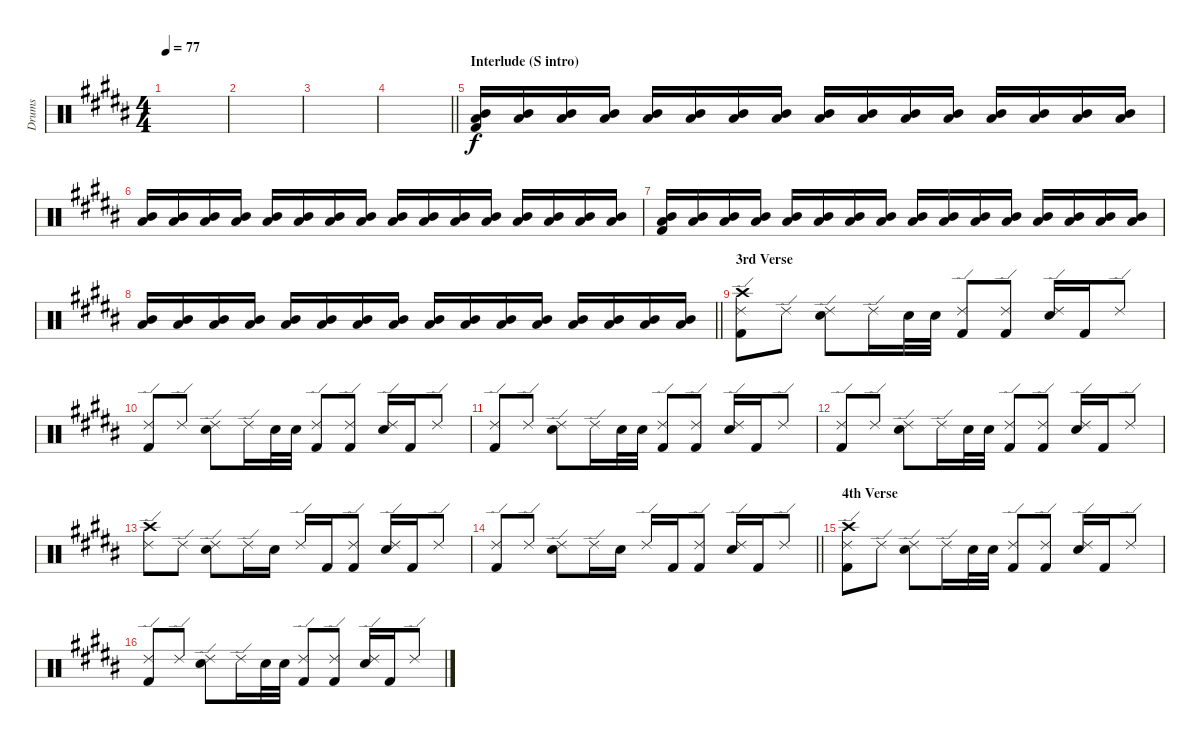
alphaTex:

\track ("Drums" "Drums") {instrument percussion}
\staff {score}
\articulation defaults
\ts (4 4)
\tempo 77
\clef neutral
\ks g#minor
|
|
|
\barLineRight lightlight
|
\section ("" "Interlude (Ѕ intro)")
("Kick (hit) 2" "Mid Tom (hit)" "Low Tom (hit)").16 ("Mid Tom (hit)" "Low Tom (hit)").16 ("Mid Tom (hit)" "Low Tom (hit)").16 ("Mid Tom (hit)" "Low Tom (hit)").16 ("Mid Tom (hit)" "Low Tom (hit)").16 ("Mid Tom (hit)" "Low Tom (hit)").16 ("Mid Tom (hit)" "Low Tom (hit)").16 ("Mid Tom (hit)" "Low Tom (hit)").16 ("Mid Tom (hit)" "Low Tom (hit)").16 ("Mid Tom (hit)" "Low Tom (hit)").16 ("Mid Tom (hit)" "Low Tom (hit)").16 ("Mid Tom (hit)" "Low Tom (hit)").16 ("Mid Tom (hit)" "Low Tom (hit)").16 ("Mid Tom (hit)" "Low Tom (hit)").16 ("Mid Tom (hit)" "Low Tom (hit)").16 ("Mid Tom (hit)" "Low Tom (hit)").16 |
("Mid Tom (hit)" "Low Tom (hit)").16 ("Mid Tom (hit)" "Low Tom (hit)").16 ("Mid Tom (hit)" "Low Tom (hit)").16 ("Mid Tom (hit)" "Low Tom (hit)").16 ("Mid Tom (hit)" "Low Tom (hit)").16 ("Mid Tom (hit)" "Low Tom (hit)").16 ("Mid Tom (hit)" "Low Tom (hit)").16 ("Mid Tom (hit)" "Low Tom (hit)").16 ("Mid Tom (hit)" "Low Tom (hit)").16 ("Mid Tom (hit)" "Low Tom (hit)").16 ("Mid Tom (hit)" "Low Tom (hit)").16 ("Mid Tom (hit)" "Low Tom (hit)").16 ("Mid Tom (hit)" "Low Tom (hit)").16 ("Mid Tom (hit)" "Low Tom (hit)").16 ("Mid Tom (hit)" "Low Tom (hit)").16 ("Mid Tom (hit)" "Low Tom (hit)").16 |
("Kick (hit) 2" "Mid Tom (hit)" "Low Tom (hit)").16 ("Mid Tom (hit)" "Low Tom (hit)").16 ("Mid Tom (hit)" "Low Tom (hit)").16 ("Mid Tom (hit)" "Low Tom (hit)").16 ("Mid Tom (hit)" "Low Tom (hit)").16 ("Mid Tom (hit)" "Low Tom (hit)").16 ("Mid Tom (hit)" "Low Tom (hit)").16 ("Mid Tom (hit)" "Low Tom (hit)").16 ("Mid Tom (hit)" "Low Tom (hit)").16 ("Mid Tom (hit)" "Low Tom (hit)").16 ("Mid Tom (hit)" "Low Tom (hit)").16 ("Mid Tom (hit)" "Low Tom (hit)").16 ("Mid Tom (hit)" "Low Tom (hit)").16 ("Mid Tom (hit)" "Low Tom (hit)").16 ("Mid Tom (hit)" "Low Tom (hit)").16 ("Mid Tom (hit)" "Low Tom (hit)").16 |
\barLineRight lightlight
("Mid Tom (hit)" "Low Tom (hit)").16 ("Mid Tom (hit)" "Low Tom (hit)").16 ("Mid Tom (hit)" "Low Tom (hit)").16 ("Mid Tom (hit)" "Low Tom (hit)").16 ("Mid Tom (hit)" "Low Tom (hit)").16 ("Mid Tom (hit)" "Low Tom (hit)").16 ("Mid Tom (hit)" "Low Tom (hit)").16 ("Mid Tom (hit)" "Low Tom (hit)").16 ("Mid Tom (hit)" "Low Tom (hit)").16 ("Mid Tom (hit)" "Low Tom (hit)").16 ("Mid Tom (hit)" "Low Tom (hit)").16 ("Mid Tom (hit)" "Low Tom (hit)").16 ("Mid Tom (hit)" "Low Tom (hit)").16 ("Mid Tom (hit)" "Low Tom (hit)").16 ("Mid Tom (hit)" "Low Tom (hit)").16 ("Mid Tom (hit)" "Low Tom (hit)").16 |
\section ("" "3rd Verse")
("Kick (hit) 2" "Ride (edge) 2" "Crash high (hit)").8 "Ride (edge) 2".8 ("Ride (edge) 2" "Snare (hit) 2").8 "Ride (edge) 2".16 "Snare (hit) 2".32 "Snare (hit) 2".32 ("Kick (hit) 2" "Ride (edge) 2").8 ("Kick (hit) 2" "Ride (edge) 2").8 ("Ride (edge) 2" "Snare (hit) 2").16 "Kick (hit) 2".16 "Ride (edge) 2".8 |
("Kick (hit) 2" "Ride (edge) 2").8 "Ride (edge) 2".8 ("Ride (edge) 2" "Snare (hit) 2").8 "Ride (edge) 2".16 "Snare (hit) 2".32 "Snare (hit) 2".32 ("Kick (hit) 2" "Ride (edge) 2").8 ("Kick (hit) 2" "Ride (edge) 2").8 ("Ride (edge) 2" "Snare (hit) 2").16 "Kick (hit) 2".16 "Ride (edge) 2".8 |
("Kick (hit) 2" "Ride (edge) 2").8 "Ride (edge) 2".8 ("Ride (edge) 2" "Snare (hit) 2").8 "Ride (edge) 2".16 "Snare (hit) 2".32 "Snare (hit) 2".32 ("Kick (hit) 2" "Ride (edge) 2").8 ("Kick (hit) 2" "Ride (edge) 2").8 ("Ride (edge) 2" "Snare (hit) 2").16 "Kick (hit) 2".16 "Ride (edge) 2".8 |
("Kick (hit) 2" "Ride (edge) 2").8 "Ride (edge) 2".8 ("Ride (edge) 2" "Snare (hit) 2").8 "Ride (edge) 2".16 "Snare (hit) 2".32 "Snare (hit) 2".32 ("Kick (hit) 2" "Ride (edge) 2").8 ("Kick (hit) 2" "Ride (edge) 2").8 ("Ride (edge) 2" "Snare (hit) 2").16 "Kick (hit) 2".16 "Ride (edge) 2".8 |
("Ride (edge) 2" "Crash high (hit)").8 "Ride (edge) 2".8 ("Ride (edge) 2" "Snare (hit) 2").8 "Ride (edge) 2".16 "Snare (hit) 2".16 "Ride (edge) 2".16 "Kick (hit) 2".16 ("Kick (hit) 2" "Ride (edge) 2").8 ("Ride (edge) 2" "Snare (hit) 2").16 "Kick (hit) 2".16 "Ride (edge) 2".8 |
\barLineRight lightlight
("Kick (hit) 2" "Ride (edge) 2").8 "Ride (edge) 2".8 ("Ride (edge) 2" "Snare (hit) 2").8 "Ride (edge) 2".16 "Snare (hit) 2".16 "Ride (edge) 2".16 "Kick (hit) 2".16 ("Kick (hit) 2" "Ride (edge) 2").8 ("Ride (edge) 2" "Snare (hit) 2").16 "Kick (hit) 2".16 "Ride (edge) 2".8 |
\section ("" "4th Verse")
("Kick (hit) 2" "Ride (edge) 2" "Crash high (hit)").8 "Ride (edge) 2".8 ("Ride (edge) 2" "Snare (hit) 2").8 "Ride (edge) 2".16 "Snare (hit) 2".32 "Snare (hit) 2".32 ("Kick (hit) 2" "Ride (edge) 2").8 ("Kick (hit) 2" "Ride (edge) 2").8 ("Ride (edge) 2" "Snare (hit) 2").16 "Kick (hit) 2".16 "Ride (edge) 2".8 |
("Kick (hit) 2" "Ride (edge) 2").8 "Ride (edge) 2".8 ("Ride (edge) 2" "Snare (hit) 2").8 "Ride (edge) 2".16 "Snare (hit) 2".32 "Snare (hit) 2".32 ("Kick (hit) 2" "Ride (edge) 2").8 ("Kick (hit) 2" "Ride (edge) 2").8 ("Ride (edge) 2" "Snare (hit) 2").16 "Kick (hit) 2".16 "Ride (edge) 2".8
